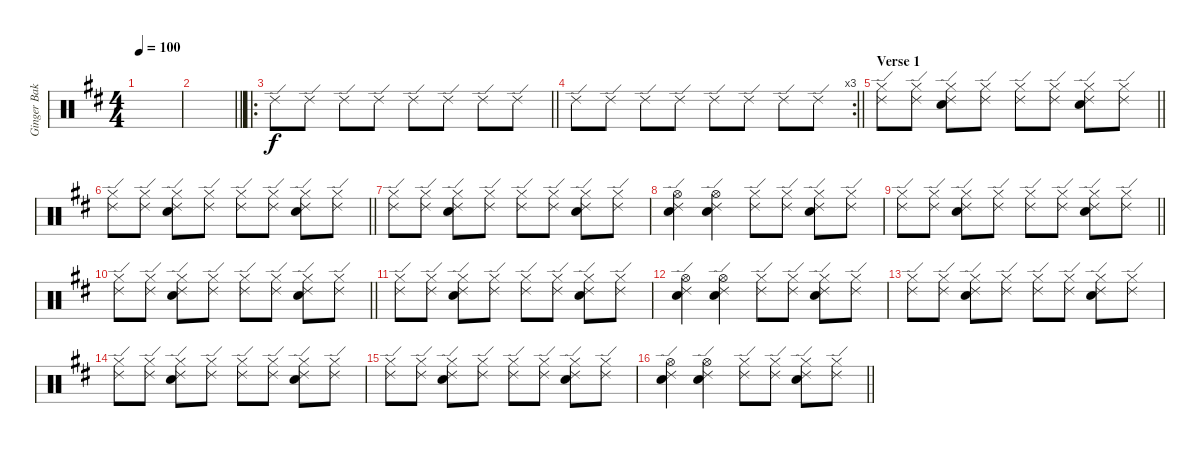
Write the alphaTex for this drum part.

\track ("Ginger Baker" "Ginger Bak") {instrument percussion}
\staff {score}
\articulation defaults
\ts (4 4)
\tempo 100
\clef neutral
\ks d
|
\barLineRight lightlight
|
\ro
\barLineRight lightlight "Ride (edge) 2".8 "Ride (edge) 2".8 "Ride (edge) 2".8 "Ride (edge) 2".8 "Ride (edge) 2".8 "Ride (edge) 2".8 "Ride (edge) 2".8 "Ride (edge) 2".8
|
\rc 3
\barLineRight lightlight "Ride (edge) 2".8 "Ride (edge) 2".8 "Ride (edge) 2".8 "Ride (edge) 2".8 "Ride (edge) 2".8 "Ride (edge) 2".8 "Ride (edge) 2".8 "Ride (edge) 2".8
|
\section ("" "Verse 1")
\barLineRight lightlight
("Hi-Hat (closed)" "Ride (edge) 2").8 ("Hi-Hat (closed)" "Ride (edge) 2").8 ("Hi-Hat (closed)" "Ride (edge) 2" "Electric Snare (hit)").8 ("Hi-Hat (closed)" "Ride (edge) 2").8 ("Hi-Hat (closed)" "Ride (edge) 2").8 ("Hi-Hat (closed)" "Ride (edge) 2").8 ("Hi-Hat (closed)" "Ride (edge) 2" "Electric Snare (hit)").8 ("Hi-Hat (closed)" "Ride (edge) 2").8 |
\barLineRight lightlight
("Hi-Hat (closed)" "Ride (edge) 2").8 ("Hi-Hat (closed)" "Ride (edge) 2").8 ("Hi-Hat (closed)" "Ride (edge) 2" "Electric Snare (hit)").8 ("Hi-Hat (closed)" "Ride (edge) 2").8 ("Hi-Hat (closed)" "Ride (edge) 2").8 ("Hi-Hat (closed)" "Ride (edge) 2").8 ("Hi-Hat (closed)" "Ride (edge) 2" "Electric Snare (hit)").8 ("Hi-Hat (closed)" "Ride (edge) 2").8 |
("Hi-Hat (closed)" "Ride (edge) 2").8 ("Hi-Hat (closed)" "Ride (edge) 2").8 ("Hi-Hat (closed)" "Ride (edge) 2" "Electric Snare (hit)").8 ("Hi-Hat (closed)" "Ride (edge) 2").8 ("Hi-Hat (closed)" "Ride (edge) 2").8 ("Hi-Hat (closed)" "Ride (edge) 2").8 ("Hi-Hat (closed)" "Ride (edge) 2" "Electric Snare (hit)").8 ("Hi-Hat (closed)" "Ride (edge) 2").8 |
("Hi-Hat (open)" "Ride (edge) 2" "Electric Snare (hit)").4 ("Hi-Hat (open)" "Ride (edge) 2" "Electric Snare (hit)").4 ("Hi-Hat (closed)" "Ride (edge) 2").8 ("Hi-Hat (closed)" "Ride (edge) 2").8 ("Hi-Hat (closed)" "Ride (edge) 2" "Electric Snare (hit)").8 ("Hi-Hat (closed)" "Ride (edge) 2").8 |
\barLineRight lightlight
("Hi-Hat (closed)" "Ride (edge) 2").8 ("Hi-Hat (closed)" "Ride (edge) 2").8 ("Hi-Hat (closed)" "Ride (edge) 2" "Electric Snare (hit)").8 ("Hi-Hat (closed)" "Ride (edge) 2").8 ("Hi-Hat (closed)" "Ride (edge) 2").8 ("Hi-Hat (closed)" "Ride (edge) 2").8 ("Hi-Hat (closed)" "Ride (edge) 2" "Electric Snare (hit)").8 ("Hi-Hat (closed)" "Ride (edge) 2").8 |
\barLineRight lightlight
("Hi-Hat (closed)" "Ride (edge) 2").8 ("Hi-Hat (closed)" "Ride (edge) 2").8 ("Hi-Hat (closed)" "Ride (edge) 2" "Electric Snare (hit)").8 ("Hi-Hat (closed)" "Ride (edge) 2").8 ("Hi-Hat (closed)" "Ride (edge) 2").8 ("Hi-Hat (closed)" "Ride (edge) 2").8 ("Hi-Hat (closed)" "Ride (edge) 2" "Electric Snare (hit)").8 ("Hi-Hat (closed)" "Ride (edge) 2").8 |
("Hi-Hat (closed)" "Ride (edge) 2").8 ("Hi-Hat (closed)" "Ride (edge) 2").8 ("Hi-Hat (closed)" "Ride (edge) 2" "Electric Snare (hit)").8 ("Hi-Hat (closed)" "Ride (edge) 2").8 ("Hi-Hat (closed)" "Ride (edge) 2").8 ("Hi-Hat (closed)" "Ride (edge) 2").8 ("Hi-Hat (closed)" "Ride (edge) 2" "Electric Snare (hit)").8 ("Hi-Hat (closed)" "Ride (edge) 2").8 |
("Hi-Hat (open)" "Ride (edge) 2" "Electric Snare (hit)").4 ("Hi-Hat (open)" "Ride (edge) 2" "Electric Snare (hit)").4 ("Hi-Hat (closed)" "Ride (edge) 2").8 ("Hi-Hat (closed)" "Ride (edge) 2").8 ("Hi-Hat (closed)" "Ride (edge) 2" "Electric Snare (hit)").8 ("Hi-Hat (closed)" "Ride (edge) 2").8 |
("Hi-Hat (closed)" "Ride (edge) 2").8 ("Hi-Hat (closed)" "Ride (edge) 2").8 ("Hi-Hat (closed)" "Ride (edge) 2" "Electric Snare (hit)").8 ("Hi-Hat (closed)" "Ride (edge) 2").8 ("Hi-Hat (closed)" "Ride (edge) 2").8 ("Hi-Hat (closed)" "Ride (edge) 2").8 ("Hi-Hat (closed)" "Ride (edge) 2" "Electric Snare (hit)").8 ("Hi-Hat (closed)" "Ride (edge) 2").8 |
("Hi-Hat (closed)" "Ride (edge) 2").8 ("Hi-Hat (closed)" "Ride (edge) 2").8 ("Hi-Hat (closed)" "Ride (edge) 2" "Electric Snare (hit)").8 ("Hi-Hat (closed)" "Ride (edge) 2").8 ("Hi-Hat (closed)" "Ride (edge) 2").8 ("Hi-Hat (closed)" "Ride (edge) 2").8 ("Hi-Hat (closed)" "Ride (edge) 2" "Electric Snare (hit)").8 ("Hi-Hat (closed)" "Ride (edge) 2").8 |
("Hi-Hat (closed)" "Ride (edge) 2").8 ("Hi-Hat (closed)" "Ride (edge) 2").8 ("Hi-Hat (closed)" "Ride (edge) 2" "Electric Snare (hit)").8 ("Hi-Hat (closed)" "Ride (edge) 2").8 ("Hi-Hat (closed)" "Ride (edge) 2").8 ("Hi-Hat (closed)" "Ride (edge) 2").8 ("Hi-Hat (closed)" "Ride (edge) 2" "Electric Snare (hit)").8 ("Hi-Hat (closed)" "Ride (edge) 2").8 |
\barLineRight lightlight
("Hi-Hat (open)" "Ride (edge) 2" "Electric Snare (hit)").4 ("Hi-Hat (open)" "Ride (edge) 2" "Electric Snare (hit)").4 ("Hi-Hat (closed)" "Ride (edge) 2").8 ("Hi-Hat (closed)" "Ride (edge) 2").8 ("Hi-Hat (closed)" "Ride (edge) 2" "Electric Snare (hit)").8 ("Hi-Hat (closed)" "Ride (edge) 2").8
